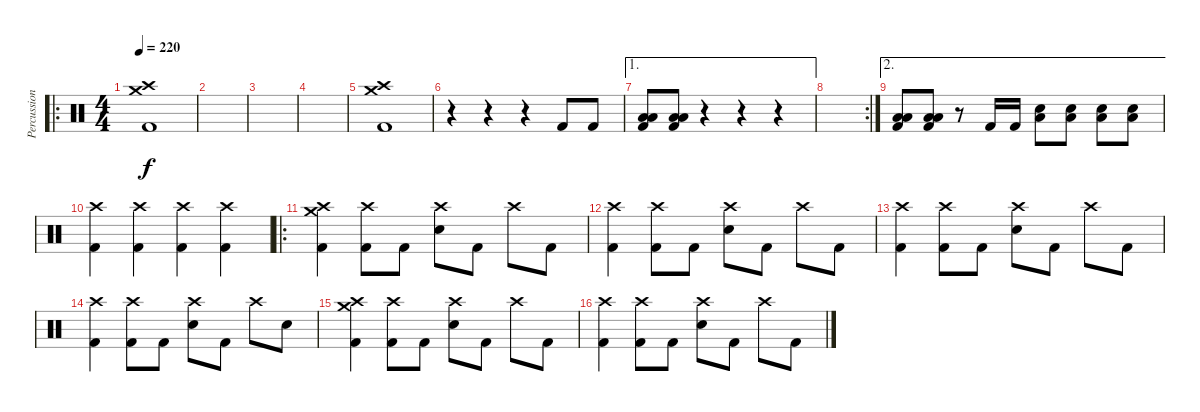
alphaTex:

\track ("Percussions" "Percussion") {instrument percussion}
\staff {score}
\articulation defaults
\ro
\ts (4 4)
\tempo 220
\clef neutral
\ks c
("Crash high (hit)" "Crash medium (hit)" "Kick (hit) 2").1{dy f} |
|
|
|
("Crash high (hit)" "Crash medium (hit)" "Kick (hit) 2").1 |
r.4 r.4 r.4 "Kick (hit) 2".8 "Kick (hit) 2".8 |
\ae 1
("Low Floor Tom (hit)" "Low Floor Tom (hit)" "Kick (hit) 2").8 ("Low Floor Tom (hit)" "Low Floor Tom (hit)" "Kick (hit) 2").8 r.4 r.4 r.4 |
\rc 2
|
\ae 2
("Low Floor Tom (hit)" "Low Floor Tom (hit)" "Kick (hit) 2").8 ("Low Floor Tom (hit)" "Low Floor Tom (hit)" "Kick (hit) 2").8 r.8 "Kick (hit) 2".16 "Kick (hit) 2".16 ("Low Floor Tom (hit)" "Snare (hit) 2").8 ("Low Floor Tom (hit)" "Snare (hit) 2").8 ("Low Floor Tom (hit)" "Snare (hit) 2").8 ("Low Floor Tom (hit)" "Snare (hit) 2").8 |
("Crash high (hit)" "Kick (hit) 2").4 ("Crash high (hit)" "Kick (hit) 2").4 ("Crash high (hit)" "Kick (hit) 2").4 ("Crash high (hit)" "Kick (hit) 2").4 |
\ro
("Crash high (hit)" "Crash medium (hit)" "Kick (hit) 2").4 ("Crash high (hit)" "Kick (hit) 2").8 "Kick (hit) 2".8 ("Crash high (hit)" "Snare (hit) 2").8 "Kick (hit) 2".8 "Crash high (hit)".8 "Kick (hit) 2".8 |
("Crash high (hit)" "Kick (hit) 2").4 ("Crash high (hit)" "Kick (hit) 2").8 "Kick (hit) 2".8 ("Crash high (hit)" "Snare (hit) 2").8 "Kick (hit) 2".8 "Crash high (hit)".8 "Kick (hit) 2".8 |
("Crash high (hit)" "Kick (hit) 2").4 ("Crash high (hit)" "Kick (hit) 2").8 "Kick (hit) 2".8 ("Crash high (hit)" "Snare (hit) 2").8 "Kick (hit) 2".8 "Crash high (hit)".8 "Kick (hit) 2".8 |
("Crash high (hit)" "Kick (hit) 2").4 ("Crash high (hit)" "Kick (hit) 2").8 "Kick (hit) 2".8 ("Crash high (hit)" "Snare (hit) 2").8 "Kick (hit) 2".8 "Crash high (hit)".8 "Snare (hit) 2".8 |
("Crash high (hit)" "Crash medium (hit)" "Kick (hit) 2").4 ("Crash high (hit)" "Kick (hit) 2").8 "Kick (hit) 2".8 ("Crash high (hit)" "Snare (hit) 2").8 "Kick (hit) 2".8 "Crash high (hit)".8 "Kick (hit) 2".8 |
("Crash high (hit)" "Kick (hit) 2").4 ("Crash high (hit)" "Kick (hit) 2").8 "Kick (hit) 2".8 ("Crash high (hit)" "Snare (hit) 2").8 "Kick (hit) 2".8 "Crash high (hit)".8 "Kick (hit) 2".8
